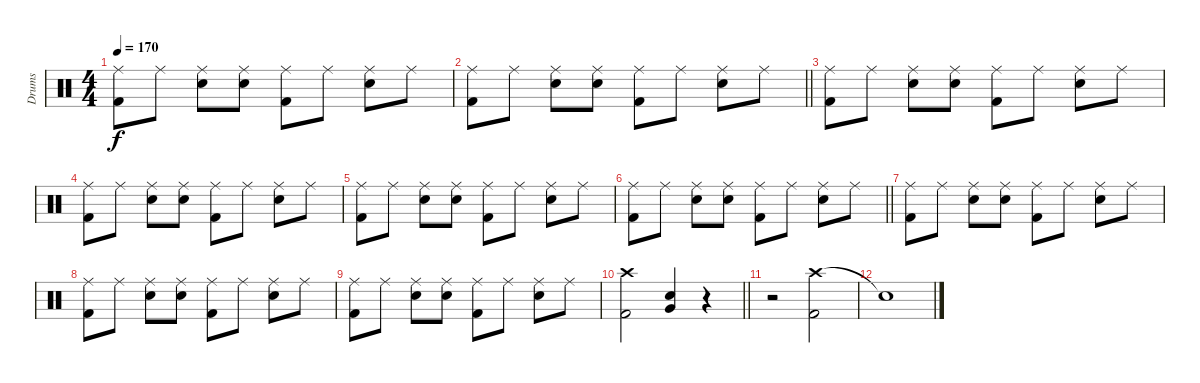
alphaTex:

\track ("Drums" "Drums") {instrument percussion}
\staff {score}
\articulation defaults
\ts (4 4)
\tempo 170
\clef neutral
\ks c
("Ride (middle)" "Kick (hit) 2").8{dy f} "Ride (middle)".8 ("Ride (middle)" "Snare (hit) 2").8 ("Ride (middle)" "Snare (hit) 2").8 ("Ride (middle)" "Kick (hit) 2").8 "Ride (middle)".8 ("Ride (middle)" "Snare (hit) 2").8 "Ride (middle)".8 |
\barLineRight lightlight
("Ride (middle)" "Kick (hit) 2").8 "Ride (middle)".8 ("Ride (middle)" "Snare (hit) 2").8 ("Ride (middle)" "Snare (hit) 2").8 ("Ride (middle)" "Kick (hit) 2").8 "Ride (middle)".8 ("Ride (middle)" "Snare (hit) 2").8 "Ride (middle)".8 |
("Ride (middle)" "Kick (hit) 2").8 "Ride (middle)".8 ("Ride (middle)" "Snare (hit) 2").8 ("Ride (middle)" "Snare (hit) 2").8 ("Ride (middle)" "Kick (hit) 2").8 "Ride (middle)".8 ("Ride (middle)" "Snare (hit) 2").8 "Ride (middle)".8 |
("Ride (middle)" "Kick (hit) 2").8 "Ride (middle)".8 ("Ride (middle)" "Snare (hit) 2").8 ("Ride (middle)" "Snare (hit) 2").8 ("Ride (middle)" "Kick (hit) 2").8 "Ride (middle)".8 ("Ride (middle)" "Snare (hit) 2").8 "Ride (middle)".8 |
("Ride (middle)" "Kick (hit) 2").8 "Ride (middle)".8 ("Ride (middle)" "Snare (hit) 2").8 ("Ride (middle)" "Snare (hit) 2").8 ("Ride (middle)" "Kick (hit) 2").8 "Ride (middle)".8 ("Ride (middle)" "Snare (hit) 2").8 "Ride (middle)".8 |
\barLineRight lightlight
("Ride (middle)" "Kick (hit) 2").8 "Ride (middle)".8 ("Ride (middle)" "Snare (hit) 2").8 ("Ride (middle)" "Snare (hit) 2").8 ("Ride (middle)" "Kick (hit) 2").8 "Ride (middle)".8 ("Ride (middle)" "Snare (hit) 2").8 "Ride (middle)".8 |
("Ride (middle)" "Kick (hit) 2").8 "Ride (middle)".8 ("Ride (middle)" "Snare (hit) 2").8 ("Ride (middle)" "Snare (hit) 2").8 ("Ride (middle)" "Kick (hit) 2").8 "Ride (middle)".8 ("Ride (middle)" "Snare (hit) 2").8 "Ride (middle)".8 |
("Ride (middle)" "Kick (hit) 2").8 "Ride (middle)".8 ("Ride (middle)" "Snare (hit) 2").8 ("Ride (middle)" "Snare (hit) 2").8 ("Ride (middle)" "Kick (hit) 2").8 "Ride (middle)".8 ("Ride (middle)" "Snare (hit) 2").8 "Ride (middle)".8 |
("Ride (middle)" "Kick (hit) 2").8 "Ride (middle)".8 ("Ride (middle)" "Snare (hit) 2").8 ("Ride (middle)" "Snare (hit) 2").8 ("Ride (middle)" "Kick (hit) 2").8 "Ride (middle)".8 ("Ride (middle)" "Snare (hit) 2").8 "Ride (middle)".8 |
\barLineRight lightlight
("Crash high (hit)" "Kick (hit) 2").2 ("Snare (hit) 2" "Very Low Tom (hit)").4 r.4 |
r.2 ("Crash high (hit)" "Kick (hit) 2").2 |
"Snare (hit)"{t}.1
